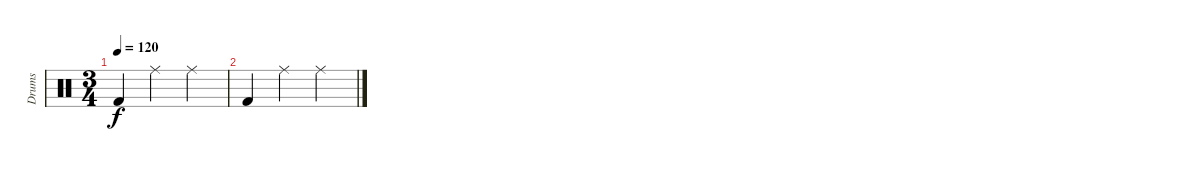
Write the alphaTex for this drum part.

\track ("Drums" "Drums") {instrument percussion}
\staff {score}
\articulation defaults
\ts (3 4)
\tempo 120
\clef neutral
\ks c "Kick (hit) 2".4{dy f} "Ride (middle)".4 "Ride (middle)".4
|
"Kick (hit) 2".4 "Ride (middle)".4 "Ride (middle)".4
